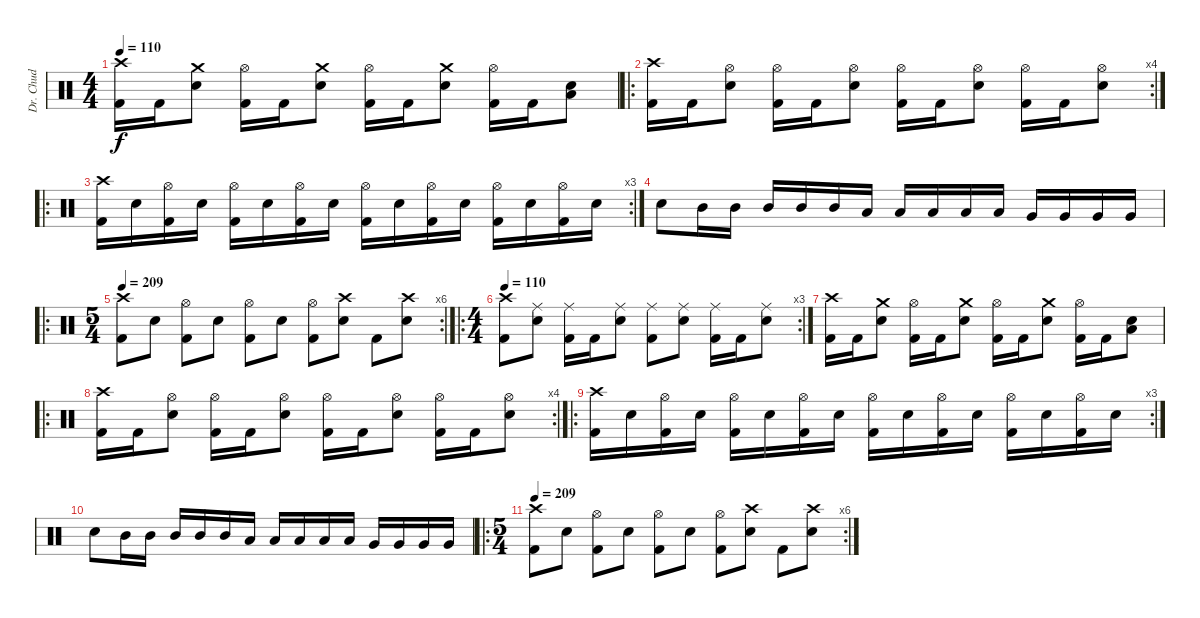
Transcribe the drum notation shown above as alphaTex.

\track ("Dr. Chud" "Dr. Chud") {instrument percussion}
\staff {score}
\articulation defaults
\ts (4 4)
\tempo 110
\clef neutral
\ks c
("Crash high (hit)" "Kick (hit) 2").16{dy f} "Kick (hit) 2".16 ("Crash medium (hit)" "Electric Snare (hit)").8 ("Hi-Hat (open)" "Kick (hit) 2").16 "Kick (hit) 2".16 ("Crash medium (hit)" "Electric Snare (hit)").8 ("Hi-Hat (open)" "Kick (hit) 2").16 "Kick (hit) 2".16 ("Crash medium (hit)" "Electric Snare (hit)").8 ("Hi-Hat (open)" "Kick (hit) 2").16 "Kick (hit) 2".16 ("Electric Snare (hit)" "Low Tom (hit)").8 |
\ro
\rc 4
("Crash high (hit)" "Kick (hit) 2").16 "Kick (hit) 2".16 ("Hi-Hat (open)" "Electric Snare (hit)").8 ("Hi-Hat (open)" "Kick (hit) 2").16 "Kick (hit) 2".16 ("Hi-Hat (open)" "Electric Snare (hit)").8 ("Hi-Hat (open)" "Kick (hit) 2").16 "Kick (hit) 2".16 ("Hi-Hat (open)" "Electric Snare (hit)").8 ("Hi-Hat (open)" "Kick (hit) 2").16 "Kick (hit) 2".16 ("Hi-Hat (open)" "Electric Snare (hit)").8 |
\ro
\rc 3
("Crash high (hit)" "Kick (hit) 2").16 "Electric Snare (hit)".16 ("Hi-Hat (open)" "Kick (hit) 2").16 "Electric Snare (hit)".16 ("Hi-Hat (open)" "Kick (hit) 2").16 "Electric Snare (hit)".16 ("Hi-Hat (open)" "Kick (hit) 2").16 "Electric Snare (hit)".16 ("Hi-Hat (open)" "Kick (hit) 2").16 "Electric Snare (hit)".16 ("Hi-Hat (open)" "Kick (hit) 2").16 "Electric Snare (hit)".16 ("Hi-Hat (open)" "Kick (hit) 2").16 "Electric Snare (hit)".16 ("Hi-Hat (open)" "Kick (hit) 2").16 "Electric Snare (hit)".16 |
"Electric Snare (hit)".8 "Mid Tom (hit)".16 "Mid Tom (hit)".16 "Mid Tom (hit)".16 "Mid Tom (hit)".16 "Mid Tom (hit)".16 "Low Tom (hit)".16 "Low Tom (hit)".16 "Low Tom (hit)".16 "Low Tom (hit)".16 "Low Tom (hit)".16 "Very Low Tom (hit)".16 "Very Low Tom (hit)".16 "Very Low Tom (hit)".16 "Very Low Tom (hit)".16 |
\ro
\rc 6
\ts (5 4)
\tempo 210
\tempo 209
("Crash high (hit)" "Kick (hit) 2").8 "Electric Snare (hit)".8 ("Hi-Hat (open)" "Kick (hit) 2").8 "Electric Snare (hit)".8 ("Hi-Hat (open)" "Kick (hit) 2").8 "Electric Snare (hit)".8 ("Hi-Hat (open)" "Kick (hit) 2").8 ("Crash high (hit)" "Electric Snare (hit)").8 "Kick (hit) 2".8 ("Crash high (hit)" "Electric Snare (hit)").8 |
\ro
\rc 3
\ts (4 4)
\tempo 110
("Crash high (hit)" "Kick (hit) 2").8 ("Ride (middle)" "Electric Snare (hit)").8 ("Ride (middle)" "Kick (hit) 2").16 "Kick (hit) 2".16 ("Ride (middle)" "Electric Snare (hit)").8 ("Ride (middle)" "Kick (hit) 2").8 ("Ride (middle)" "Electric Snare (hit)").8 ("Ride (middle)" "Kick (hit) 2").16 "Kick (hit) 2".16 ("Ride (middle)" "Electric Snare (hit)").8 |
("Crash high (hit)" "Kick (hit) 2").16 "Kick (hit) 2".16 ("Crash medium (hit)" "Electric Snare (hit)").8 ("Hi-Hat (open)" "Kick (hit) 2").16 "Kick (hit) 2".16 ("Crash medium (hit)" "Electric Snare (hit)").8 ("Hi-Hat (open)" "Kick (hit) 2").16 "Kick (hit) 2".16 ("Crash medium (hit)" "Electric Snare (hit)").8 ("Hi-Hat (open)" "Kick (hit) 2").16 "Kick (hit) 2".16 ("Electric Snare (hit)" "Low Tom (hit)").8 |
\ro
\rc 4
("Crash high (hit)" "Kick (hit) 2").16 "Kick (hit) 2".16 ("Hi-Hat (open)" "Electric Snare (hit)").8 ("Hi-Hat (open)" "Kick (hit) 2").16 "Kick (hit) 2".16 ("Hi-Hat (open)" "Electric Snare (hit)").8 ("Hi-Hat (open)" "Kick (hit) 2").16 "Kick (hit) 2".16 ("Hi-Hat (open)" "Electric Snare (hit)").8 ("Hi-Hat (open)" "Kick (hit) 2").16 "Kick (hit) 2".16 ("Hi-Hat (open)" "Electric Snare (hit)").8 |
\ro
\rc 3
("Crash high (hit)" "Kick (hit) 2").16 "Electric Snare (hit)".16 ("Hi-Hat (open)" "Kick (hit) 2").16 "Electric Snare (hit)".16 ("Hi-Hat (open)" "Kick (hit) 2").16 "Electric Snare (hit)".16 ("Hi-Hat (open)" "Kick (hit) 2").16 "Electric Snare (hit)".16 ("Hi-Hat (open)" "Kick (hit) 2").16 "Electric Snare (hit)".16 ("Hi-Hat (open)" "Kick (hit) 2").16 "Electric Snare (hit)".16 ("Hi-Hat (open)" "Kick (hit) 2").16 "Electric Snare (hit)".16 ("Hi-Hat (open)" "Kick (hit) 2").16 "Electric Snare (hit)".16 |
"Electric Snare (hit)".8 "Mid Tom (hit)".16 "Mid Tom (hit)".16 "Mid Tom (hit)".16 "Mid Tom (hit)".16 "Mid Tom (hit)".16 "Low Tom (hit)".16 "Low Tom (hit)".16 "Low Tom (hit)".16 "Low Tom (hit)".16 "Low Tom (hit)".16 "Very Low Tom (hit)".16 "Very Low Tom (hit)".16 "Very Low Tom (hit)".16 "Very Low Tom (hit)".16 |
\ro
\rc 6
\ts (5 4)
\tempo 210
\tempo 209
("Crash high (hit)" "Kick (hit) 2").8 "Electric Snare (hit)".8 ("Hi-Hat (open)" "Kick (hit) 2").8 "Electric Snare (hit)".8 ("Hi-Hat (open)" "Kick (hit) 2").8 "Electric Snare (hit)".8 ("Hi-Hat (open)" "Kick (hit) 2").8 ("Crash high (hit)" "Electric Snare (hit)").8 "Kick (hit) 2".8 ("Crash high (hit)" "Electric Snare (hit)").8
